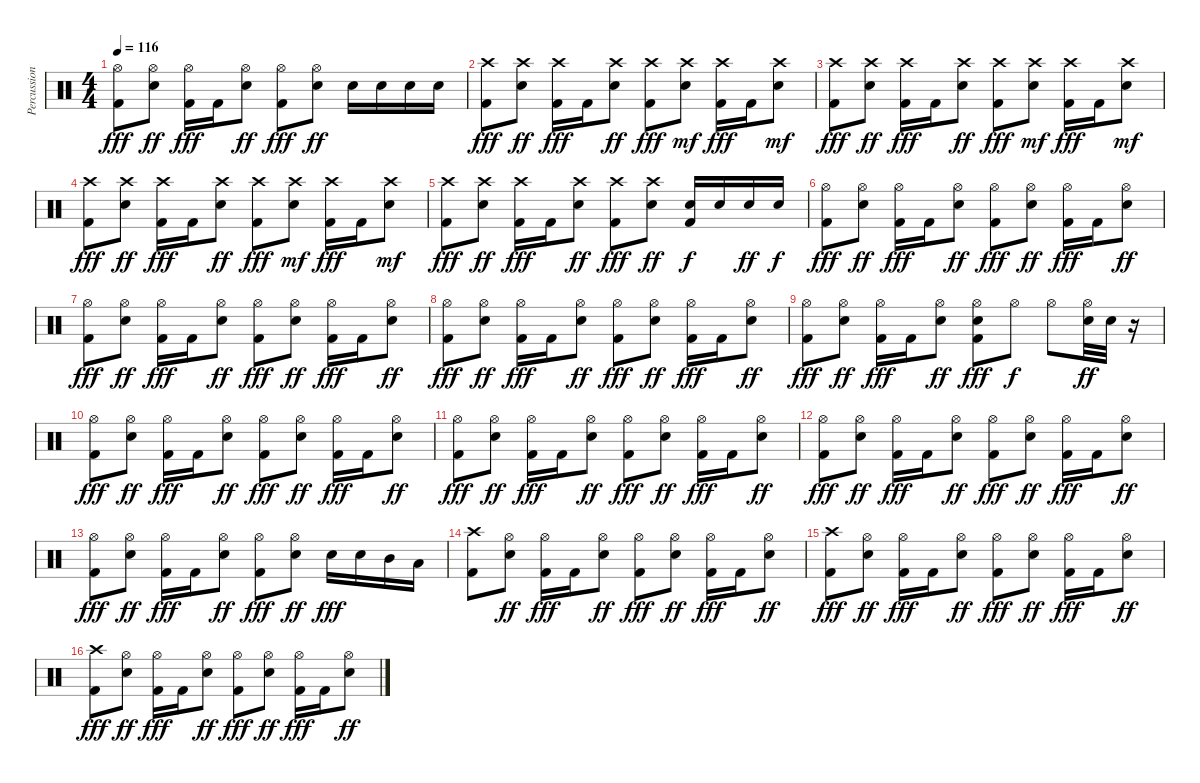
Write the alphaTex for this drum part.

\track ("Percussioni" "Percussion") {instrument percussion}
\staff {score}
\articulation defaults
\ts (4 4)
\tempo 116
\clef neutral
\ks c
("Hi-Hat (open)" "Kick (hit) 2").8{dy fff} ("Hi-Hat (open)" "Snare (hit) 2").8{dy ff} ("Hi-Hat (open)" "Kick (hit) 2").16{dy fff} "Kick (hit) 2".16 ("Hi-Hat (open)" "Snare (hit) 2").8{dy ff} ("Hi-Hat (open)" "Kick (hit) 2").8{dy fff} ("Hi-Hat (open)" "Snare (hit) 2").8{dy ff} "Snare (hit) 2".16 "Snare (hit) 2".16 "Snare (hit) 2".16 "Snare (hit) 2".16 |
("Crash high (hit)" "Kick (hit) 2").8{dy fff} ("Crash high (hit)" "Snare (hit) 2").8{dy ff} ("Crash high (hit)" "Kick (hit) 2").16{dy fff} "Kick (hit) 2".16 ("Crash high (hit)" "Snare (hit) 2").8{dy ff} ("Crash high (hit)" "Kick (hit) 2").8{dy fff} ("Crash high (hit)" "Snare (hit) 2").8{dy mf} ("Crash high (hit)" "Kick (hit) 2").16{dy fff} "Kick (hit) 2".16 ("Crash high (hit)" "Snare (hit) 2").8{dy mf} |
("Crash high (hit)" "Kick (hit) 2").8{dy fff} ("Crash high (hit)" "Snare (hit) 2").8{dy ff} ("Crash high (hit)" "Kick (hit) 2").16{dy fff} "Kick (hit) 2".16 ("Crash high (hit)" "Snare (hit) 2").8{dy ff} ("Crash high (hit)" "Kick (hit) 2").8{dy fff} ("Crash high (hit)" "Snare (hit) 2").8{dy mf} ("Crash high (hit)" "Kick (hit) 2").16{dy fff} "Kick (hit) 2".16 ("Crash high (hit)" "Snare (hit) 2").8{dy mf} |
("Crash high (hit)" "Kick (hit) 2").8{dy fff} ("Crash high (hit)" "Snare (hit) 2").8{dy ff} ("Crash high (hit)" "Kick (hit) 2").16{dy fff} "Kick (hit) 2".16 ("Crash high (hit)" "Snare (hit) 2").8{dy ff} ("Crash high (hit)" "Kick (hit) 2").8{dy fff} ("Crash high (hit)" "Snare (hit) 2").8{dy mf} ("Crash high (hit)" "Kick (hit) 2").16{dy fff} "Kick (hit) 2".16 ("Crash high (hit)" "Snare (hit) 2").8{dy mf} |
("Crash high (hit)" "Kick (hit) 2").8{dy fff} ("Crash high (hit)" "Snare (hit) 2").8{dy ff} ("Crash high (hit)" "Kick (hit) 2").16{dy fff} "Kick (hit) 2".16 ("Crash high (hit)" "Snare (hit) 2").8{dy ff} ("Crash high (hit)" "Kick (hit) 2").8{dy fff} ("Crash high (hit)" "Snare (hit) 2").8{dy ff} ("Snare (hit) 2" "Kick (hit) 2").16{dy f} "Snare (hit) 2".16 "Snare (hit) 2".16{dy ff} "Snare (hit) 2".16{dy f} |
("Hi-Hat (open)" "Kick (hit) 2").8{dy fff} ("Hi-Hat (open)" "Snare (hit) 2").8{dy ff} ("Hi-Hat (open)" "Kick (hit) 2").16{dy fff} "Kick (hit) 2".16 ("Hi-Hat (open)" "Snare (hit) 2").8{dy ff} ("Hi-Hat (open)" "Kick (hit) 2").8{dy fff} ("Hi-Hat (open)" "Snare (hit) 2").8{dy ff} ("Hi-Hat (open)" "Kick (hit) 2").16{dy fff} "Kick (hit) 2".16 ("Hi-Hat (open)" "Snare (hit) 2").8{dy ff} |
("Hi-Hat (open)" "Kick (hit) 2").8{dy fff} ("Hi-Hat (open)" "Snare (hit) 2").8{dy ff} ("Hi-Hat (open)" "Kick (hit) 2").16{dy fff} "Kick (hit) 2".16 ("Hi-Hat (open)" "Snare (hit) 2").8{dy ff} ("Hi-Hat (open)" "Kick (hit) 2").8{dy fff} ("Hi-Hat (open)" "Snare (hit) 2").8{dy ff} ("Hi-Hat (open)" "Kick (hit) 2").16{dy fff} "Kick (hit) 2".16 ("Hi-Hat (open)" "Snare (hit) 2").8{dy ff} |
("Hi-Hat (open)" "Kick (hit) 2").8{dy fff} ("Hi-Hat (open)" "Snare (hit) 2").8{dy ff} ("Hi-Hat (open)" "Kick (hit) 2").16{dy fff} "Kick (hit) 2".16 ("Hi-Hat (open)" "Snare (hit) 2").8{dy ff} ("Hi-Hat (open)" "Kick (hit) 2").8{dy fff} ("Hi-Hat (open)" "Snare (hit) 2").8{dy ff} ("Hi-Hat (open)" "Kick (hit) 2").16{dy fff} "Kick (hit) 2".16 ("Hi-Hat (open)" "Snare (hit) 2").8{dy ff} |
("Hi-Hat (open)" "Kick (hit) 2").8{dy fff} ("Hi-Hat (open)" "Snare (hit) 2").8{dy ff} ("Hi-Hat (open)" "Kick (hit) 2").16{dy fff} "Kick (hit) 2".16 ("Hi-Hat (open)" "Snare (hit) 2").8{dy ff} ("Hi-Hat (open)" "Snare (hit) 2" "Kick (hit) 2").8{dy fff} "Hi-Hat (open)".8{dy f} "Hi-Hat (open)".8 ("Hi-Hat (open)" "Snare (hit) 2").32{dy ff} "Snare (hit) 2".32 r.16 |
("Hi-Hat (open)" "Kick (hit) 2").8{dy fff} ("Hi-Hat (open)" "Snare (hit) 2").8{dy ff} ("Hi-Hat (open)" "Kick (hit) 2").16{dy fff} "Kick (hit) 2".16 ("Hi-Hat (open)" "Snare (hit) 2").8{dy ff} ("Hi-Hat (open)" "Kick (hit) 2").8{dy fff} ("Hi-Hat (open)" "Snare (hit) 2").8{dy ff} ("Hi-Hat (open)" "Kick (hit) 2").16{dy fff} "Kick (hit) 2".16 ("Hi-Hat (open)" "Snare (hit) 2").8{dy ff} |
("Hi-Hat (open)" "Kick (hit) 2").8{dy fff} ("Hi-Hat (open)" "Snare (hit) 2").8{dy ff} ("Hi-Hat (open)" "Kick (hit) 2").16{dy fff} "Kick (hit) 2".16 ("Hi-Hat (open)" "Snare (hit) 2").8{dy ff} ("Hi-Hat (open)" "Kick (hit) 2").8{dy fff} ("Hi-Hat (open)" "Snare (hit) 2").8{dy ff} ("Hi-Hat (open)" "Kick (hit) 2").16{dy fff} "Kick (hit) 2".16 ("Hi-Hat (open)" "Snare (hit) 2").8{dy ff} |
("Hi-Hat (open)" "Kick (hit) 2").8{dy fff} ("Hi-Hat (open)" "Snare (hit) 2").8{dy ff} ("Hi-Hat (open)" "Kick (hit) 2").16{dy fff} "Kick (hit) 2".16 ("Hi-Hat (open)" "Snare (hit) 2").8{dy ff} ("Hi-Hat (open)" "Kick (hit) 2").8{dy fff} ("Hi-Hat (open)" "Snare (hit) 2").8{dy ff} ("Hi-Hat (open)" "Kick (hit) 2").16{dy fff} "Kick (hit) 2".16 ("Hi-Hat (open)" "Snare (hit) 2").8{dy ff} |
("Hi-Hat (open)" "Kick (hit) 2").8{dy fff} ("Hi-Hat (open)" "Snare (hit) 2").8{dy ff} ("Hi-Hat (open)" "Kick (hit) 2").16{dy fff} "Kick (hit) 2".16 ("Hi-Hat (open)" "Snare (hit) 2").8{dy ff} ("Hi-Hat (open)" "Kick (hit) 2").8{dy fff} ("Hi-Hat (open)" "Snare (hit) 2").8{dy ff} "Snare (hit) 2".16{dy fff} "Snare (hit) 2".16 "Mid Tom (hit)".16 "Low Tom (hit)".16 |
("Crash high (hit)" "Kick (hit) 2").8 ("Hi-Hat (open)" "Snare (hit) 2").8{dy ff} ("Hi-Hat (open)" "Kick (hit) 2").16{dy fff} "Kick (hit) 2".16 ("Hi-Hat (open)" "Snare (hit) 2").8{dy ff} ("Hi-Hat (open)" "Kick (hit) 2").8{dy fff} ("Hi-Hat (open)" "Snare (hit) 2").8{dy ff} ("Hi-Hat (open)" "Kick (hit) 2").16{dy fff} "Kick (hit) 2".16 ("Hi-Hat (open)" "Snare (hit) 2").8{dy ff} |
("Crash high (hit)" "Kick (hit) 2").8{dy fff} ("Hi-Hat (open)" "Snare (hit) 2").8{dy ff} ("Hi-Hat (open)" "Kick (hit) 2").16{dy fff} "Kick (hit) 2".16 ("Hi-Hat (open)" "Snare (hit) 2").8{dy ff} ("Hi-Hat (open)" "Kick (hit) 2").8{dy fff} ("Hi-Hat (open)" "Snare (hit) 2").8{dy ff} ("Hi-Hat (open)" "Kick (hit) 2").16{dy fff} "Kick (hit) 2".16 ("Hi-Hat (open)" "Snare (hit) 2").8{dy ff} |
("Crash high (hit)" "Kick (hit) 2").8{dy fff} ("Hi-Hat (open)" "Snare (hit) 2").8{dy ff} ("Hi-Hat (open)" "Kick (hit) 2").16{dy fff} "Kick (hit) 2".16 ("Hi-Hat (open)" "Snare (hit) 2").8{dy ff} ("Hi-Hat (open)" "Kick (hit) 2").8{dy fff} ("Hi-Hat (open)" "Snare (hit) 2").8{dy ff} ("Hi-Hat (open)" "Kick (hit) 2").16{dy fff} "Kick (hit) 2".16 ("Hi-Hat (open)" "Snare (hit) 2").8{dy ff}
